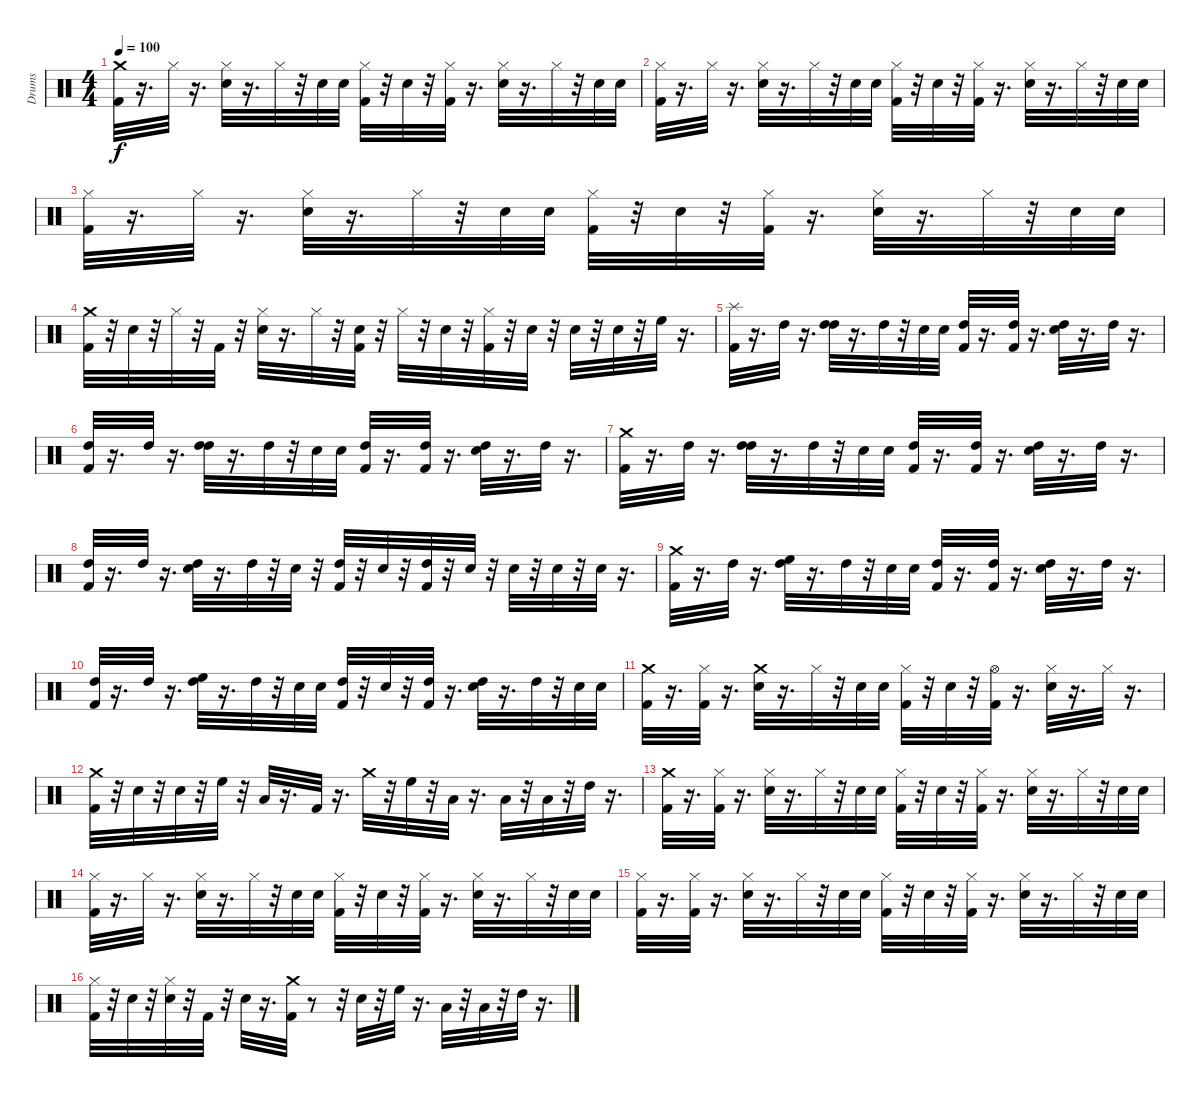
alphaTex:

\track ("Drums" "Drums") {instrument percussion}
\staff {score}
\articulation defaults
\ts (4 4)
\tempo 100
\clef neutral
\ks c
("Kick (hit) 2" "Crash medium (hit)").32{dy f} r.16{d} "Hi-Hat (closed)".32 r.16{d} ("Hi-Hat (closed)" "Snare (hit) 2").32 r.16{d} "Hi-Hat (closed)".32 r.32 "Snare (hit) 2".32 "Snare (hit) 2".32 ("Kick (hit) 2" "Hi-Hat (closed)").32 r.32 "Snare (hit) 2".32 r.32 ("Kick (hit) 2" "Hi-Hat (closed)").32 r.16{d} ("Hi-Hat (closed)" "Snare (hit) 2").32 r.16{d} "Hi-Hat (closed)".32 r.32 "Snare (hit) 2".32 "Snare (hit) 2".32 |
("Kick (hit) 2" "Hi-Hat (closed)").32 r.16{d} "Hi-Hat (closed)".32 r.16{d} ("Hi-Hat (closed)" "Snare (hit) 2").32 r.16{d} "Hi-Hat (closed)".32 r.32 "Snare (hit) 2".32 "Snare (hit) 2".32 ("Kick (hit) 2" "Hi-Hat (closed)").32 r.32 "Snare (hit) 2".32 r.32 ("Kick (hit) 2" "Hi-Hat (closed)").32 r.16{d} ("Hi-Hat (closed)" "Snare (hit) 2").32 r.16{d} "Hi-Hat (closed)".32 r.32 "Snare (hit) 2".32 "Snare (hit) 2".32 |
("Kick (hit) 2" "Hi-Hat (closed)").32 r.16{d} "Hi-Hat (closed)".32 r.16{d} ("Hi-Hat (closed)" "Snare (hit) 2").32 r.16{d} "Hi-Hat (closed)".32 r.32 "Snare (hit) 2".32 "Snare (hit) 2".32 ("Kick (hit) 2" "Hi-Hat (closed)").32 r.32 "Snare (hit) 2".32 r.32 ("Kick (hit) 2" "Hi-Hat (closed)").32 r.16{d} ("Hi-Hat (closed)" "Snare (hit) 2").32 r.16{d} "Hi-Hat (closed)".32 r.32 "Snare (hit) 2".32 "Snare (hit) 2".32 |
("Kick (hit) 2" "Crash medium (hit)").32 r.32 "Snare (hit) 2".32 r.32 "Hi-Hat (closed)".32 r.32 "Kick (hit) 2".32 r.32 ("Hi-Hat (closed)" "Snare (hit) 2").32 r.16{d} "Hi-Hat (closed)".32 r.32 ("Kick (hit) 2" "Snare (hit) 2").32 r.32 "Hi-Hat (closed)".32 r.32 "Snare (hit) 2".32 r.32 ("Kick (hit) 2" "Hi-Hat (closed)").32 r.32 "Snare (hit) 2".32 r.32 "Snare (hit) 2".32 r.32 "Electric Snare (hit)".32 r.32 "High Floor Tom (hit)".32 r.16{d} |
("Kick (hit) 2" "Splash (hit)").32 r.16{d} "High Tom (hit)".32 r.16{d} ("High Tom (hit)" "High Tom (hit)").32 r.16{d} "High Tom (hit)".32 r.32 "Snare (hit) 2".32 "Snare (hit) 2".32 ("Kick (hit) 2" "High Tom (hit)").32 r.16{d} ("Kick (hit) 2" "High Tom (hit)").32 r.16{d} ("High Tom (hit)" "Snare (hit) 2").32 r.16{d} "High Tom (hit)".32 r.16{d} |
("Kick (hit) 2" "High Tom (hit)").32 r.16{d} "High Tom (hit)".32 r.16{d} ("High Tom (hit)" "High Tom (hit)").32 r.16{d} "High Tom (hit)".32 r.32 "Snare (hit) 2".32 "Snare (hit) 2".32 ("Kick (hit) 2" "High Tom (hit)").32 r.16{d} ("Kick (hit) 2" "High Tom (hit)").32 r.16{d} ("High Tom (hit)" "Snare (hit) 2").32 r.16{d} "High Tom (hit)".32 r.16{d} |
("Kick (hit) 2" "Crash medium (hit)").32 r.16{d} "High Tom (hit)".32 r.16{d} ("High Tom (hit)" "High Tom (hit)").32 r.16{d} "High Tom (hit)".32 r.32 "Snare (hit) 2".32 "Snare (hit) 2".32 ("Kick (hit) 2" "High Tom (hit)").32 r.16{d} ("Kick (hit) 2" "High Tom (hit)").32 r.16{d} ("High Tom (hit)" "Snare (hit) 2").32 r.16{d} "High Tom (hit)".32 r.16{d} |
("Kick (hit) 2" "High Tom (hit)").32 r.16{d} "High Tom (hit)".32 r.16{d} ("High Tom (hit)" "Snare (hit) 2").32 r.16{d} "High Tom (hit)".32 r.32 "Snare (hit) 2".32 r.32 ("Kick (hit) 2" "High Tom (hit)").32 r.32 "Snare (hit) 2".32 r.32 ("Kick (hit) 2" "High Tom (hit)").32 r.32 "Snare (hit) 2".32 r.32 "Snare (hit) 2".32 r.32 "Snare (hit) 2".32 r.32 "Snare (hit) 2".32 r.16{d} |
("Kick (hit) 2" "Crash medium (hit)").32 r.16{d} "High Tom (hit)".32 r.16{d} ("High Tom (hit)" "High Floor Tom (hit)").32 r.16{d} "High Tom (hit)".32 r.32 "Snare (hit) 2".32 "Snare (hit) 2".32 ("Kick (hit) 2" "High Tom (hit)").32 r.16{d} ("Kick (hit) 2" "High Tom (hit)").32 r.16{d} ("High Tom (hit)" "Snare (hit) 2").32 r.16{d} "High Tom (hit)".32 r.16{d} |
("Kick (hit) 2" "High Tom (hit)").32 r.16{d} "High Tom (hit)".32 r.16{d} ("High Tom (hit)" "High Floor Tom (hit)").32 r.16{d} "High Tom (hit)".32 r.32 "Snare (hit) 2".32 "Snare (hit) 2".32 ("Kick (hit) 2" "High Tom (hit)").32 r.32 "Snare (hit) 2".32 r.32 ("Kick (hit) 2" "High Tom (hit)").32 r.16{d} ("High Tom (hit)" "Snare (hit) 2").32 r.16{d} "High Tom (hit)".32 r.32 "Snare (hit) 2".32 "Snare (hit) 2".32 |
("Kick (hit) 2" "Crash medium (hit)").32 r.16{d} ("Kick (hit) 2" "Hi-Hat (closed)").32 r.16{d} ("Snare (hit) 2" "Crash medium (hit)").32 r.16{d} "Hi-Hat (closed)".32 r.32 "Snare (hit) 2".32 "Snare (hit) 2".32 ("Kick (hit) 2" "Hi-Hat (closed)").32 r.32 "Snare (hit) 2".32 r.32 ("Kick (hit) 2" "Hi-Hat (open)").32 r.16{d} ("Snare (hit) 2" "Hi-Hat (closed)").32 r.16{d} "Hi-Hat (closed)".32 r.16{d} |
("Kick (hit) 2" "Crash medium (hit)").32 r.32 "Snare (hit) 2".32 r.32 "Snare (hit) 2".32 r.32 "High Floor Tom (hit)".32 r.32 "Low Tom (hit)".32 r.16{d} "Kick (hit) 2".32 r.16{d} "Crash medium (hit)".32 r.32 "High Floor Tom (hit)".32 r.32 "Low Tom (hit)".32 r.16{d} "Low Tom (hit)".32 r.32 "Low Tom (hit)".32 r.32 "High Tom (hit)".32 r.16{d} |
("Kick (hit) 2" "Crash medium (hit)").32 r.16{d} ("Kick (hit) 2" "Hi-Hat (closed)").32 r.16{d} ("Hi-Hat (closed)" "Snare (hit) 2").32 r.16{d} "Hi-Hat (closed)".32 r.32 "Snare (hit) 2".32 "Snare (hit) 2".32 ("Kick (hit) 2" "Hi-Hat (closed)").32 r.32 "Snare (hit) 2".32 r.32 ("Kick (hit) 2" "Hi-Hat (closed)").32 r.16{d} ("Hi-Hat (closed)" "Snare (hit) 2").32 r.16{d} "Hi-Hat (closed)".32 r.32 "Snare (hit) 2".32 "Snare (hit) 2".32 |
("Kick (hit) 2" "Hi-Hat (closed)").32 r.16{d} "Hi-Hat (closed)".32 r.16{d} ("Hi-Hat (closed)" "Snare (hit) 2").32 r.16{d} "Hi-Hat (closed)".32 r.32 "Snare (hit) 2".32 "Snare (hit) 2".32 ("Kick (hit) 2" "Hi-Hat (closed)").32 r.32 "Snare (hit) 2".32 r.32 ("Kick (hit) 2" "Hi-Hat (closed)").32 r.16{d} ("Hi-Hat (closed)" "Snare (hit) 2").32 r.16{d} "Hi-Hat (closed)".32 r.32 "Snare (hit) 2".32 "Snare (hit) 2".32 |
("Kick (hit) 2" "Hi-Hat (closed)").32 r.16{d} ("Kick (hit) 2" "Hi-Hat (closed)").32 r.16{d} ("Hi-Hat (closed)" "Snare (hit) 2").32 r.16{d} "Hi-Hat (closed)".32 r.32 "Snare (hit) 2".32 "Snare (hit) 2".32 ("Kick (hit) 2" "Hi-Hat (closed)").32 r.32 "Snare (hit) 2".32 r.32 ("Kick (hit) 2" "Hi-Hat (closed)").32 r.16{d} ("Hi-Hat (closed)" "Snare (hit) 2").32 r.16{d} "Hi-Hat (closed)".32 r.32 "Snare (hit) 2".32 "Snare (hit) 2".32 |
("Kick (hit) 2" "Hi-Hat (closed)").32 r.32 "Snare (hit) 2".32 r.32 ("Snare (hit) 2" "Hi-Hat (closed)").32 r.32 "Kick (hit) 2".32 r.32 "Snare (hit) 2".32 r.16{d} ("Kick (hit) 2" "Crash medium (hit)").32 r.8 r.32 "Electric Snare (hit)".32 r.32 "High Floor Tom (hit)".32 r.16{d} "Low Tom (hit)".32 r.32 "Low Tom (hit)".32 r.32 "High Tom (hit)".32 r.16{d}
